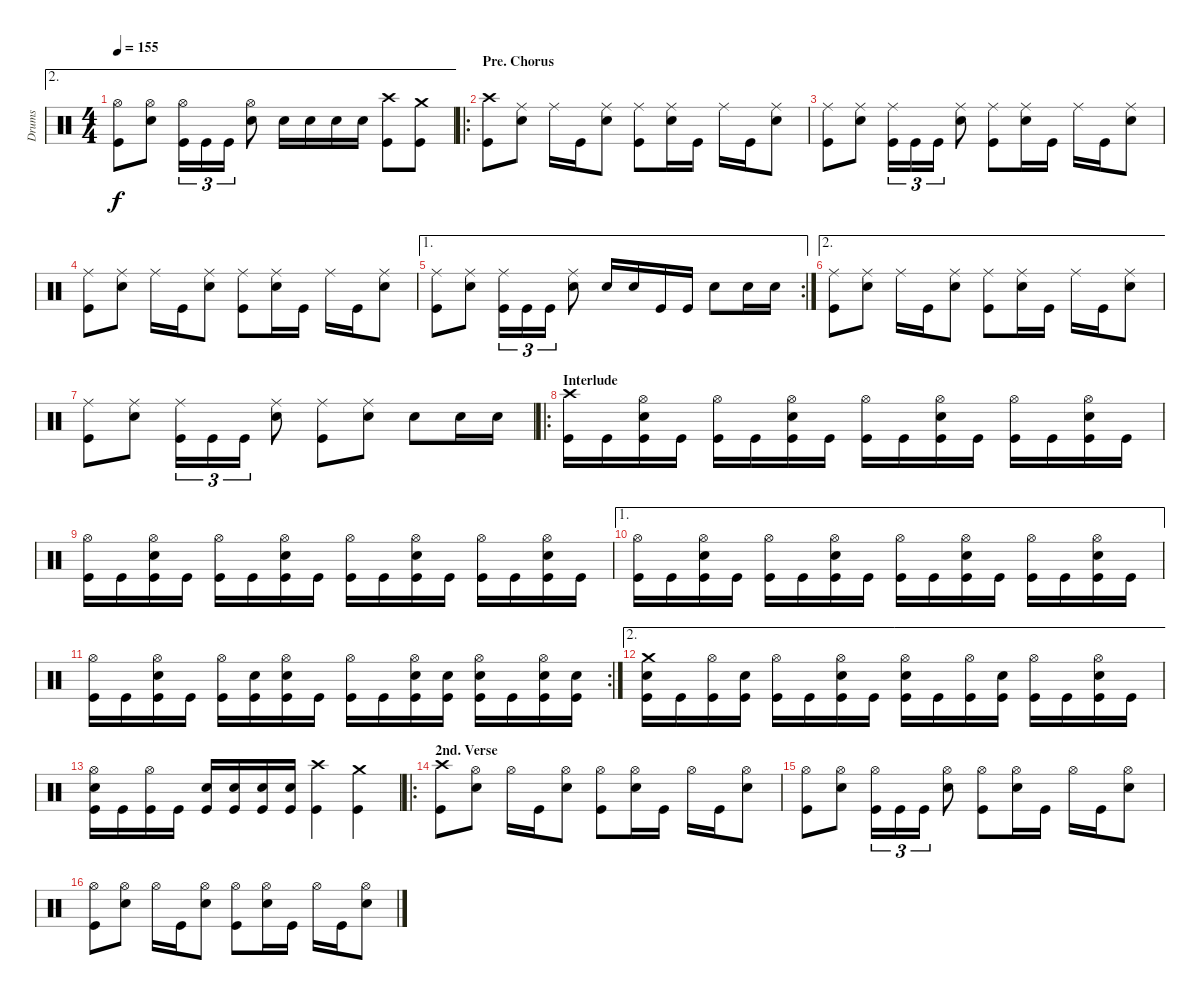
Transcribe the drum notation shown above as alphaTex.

\track ("Drums" "Drums") {instrument percussion}
\staff {score}
\articulation defaults
\ae 2
\ts (4 4)
\tempo 155
\clef neutral
\ks c
("Hi-Hat (open)" "Kick (hit)").8{dy f} ("Hi-Hat (open)" "Snare (hit) 2").8 ("Hi-Hat (open)" "Kick (hit)").16{tu (3 2)} "Kick (hit)".16{tu (3 2)} "Kick (hit)".16{tu (3 2)} ("Hi-Hat (open)" "Snare (hit) 2").8 "Snare (hit) 2".16 "Snare (hit) 2".16 "Snare (hit) 2".16 "Snare (hit) 2".16 ("Crash high (hit)" "Kick (hit)").8 ("Crash medium (hit)" "Kick (hit)").8 |
\ro
\section ("" "Pre. Chorus")
("Crash high (hit)" "Kick (hit)").8 ("Ride (middle)" "Snare (hit) 2").8 "Ride (middle)".16 "Kick (hit)".16 ("Ride (middle)" "Snare (hit) 2").8 ("Ride (middle)" "Kick (hit)").8 ("Ride (middle)" "Snare (hit) 2").16 "Kick (hit)".16 "Ride (middle)".16 "Kick (hit)".16 ("Ride (middle)" "Snare (hit) 2").8 |
("Ride (middle)" "Kick (hit)").8 ("Ride (middle)" "Snare (hit) 2").8 ("Ride (middle)" "Kick (hit)").16{tu (3 2)} "Kick (hit)".16{tu (3 2)} "Kick (hit)".16{tu (3 2)} ("Ride (middle)" "Snare (hit) 2").8 ("Ride (middle)" "Kick (hit)").8 ("Ride (middle)" "Snare (hit) 2").16 "Kick (hit)".16 "Ride (middle)".16 "Kick (hit)".16 ("Ride (middle)" "Snare (hit) 2").8 |
("Ride (middle)" "Kick (hit)").8 ("Ride (middle)" "Snare (hit) 2").8 "Ride (middle)".16 "Kick (hit)".16 ("Ride (middle)" "Snare (hit) 2").8 ("Ride (middle)" "Kick (hit)").8 ("Ride (middle)" "Snare (hit) 2").16 "Kick (hit)".16 "Ride (middle)".16 "Kick (hit)".16 ("Ride (middle)" "Snare (hit) 2").8 |
\ae 1
\rc 2
("Ride (middle)" "Kick (hit)").8 ("Ride (middle)" "Snare (hit) 2").8 ("Ride (middle)" "Kick (hit)").16{tu (3 2)} "Kick (hit)".16{tu (3 2)} "Kick (hit)".16{tu (3 2)} ("Ride (middle)" "Snare (hit) 2").8 "Snare (hit) 2".16 "Snare (hit) 2".16 "Kick (hit)".16 "Kick (hit)".16 "Snare (hit) 2".8 "Snare (hit) 2".16 "Snare (hit) 2".16 |
\ae 2
("Ride (middle)" "Kick (hit)").8 ("Ride (middle)" "Snare (hit) 2").8 "Ride (middle)".16 "Kick (hit)".16 ("Ride (middle)" "Snare (hit) 2").8 ("Ride (middle)" "Kick (hit)").8 ("Ride (middle)" "Snare (hit) 2").16 "Kick (hit)".16 "Ride (middle)".16 "Kick (hit)".16 ("Ride (middle)" "Snare (hit) 2").8 |
("Ride (middle)" "Kick (hit)").8 ("Ride (middle)" "Snare (hit) 2").8 ("Ride (middle)" "Kick (hit)").16{tu (3 2)} "Kick (hit)".16{tu (3 2)} "Kick (hit)".16{tu (3 2)} ("Ride (middle)" "Snare (hit) 2").8 ("Ride (middle)" "Kick (hit)").8 ("Ride (middle)" "Snare (hit) 2").8 "Snare (hit) 2".8 "Snare (hit) 2".16 "Snare (hit) 2".16 |
\ro
\section ("" "Interlude")
("Crash high (hit)" "Kick (hit)").16 "Kick (hit)".16 ("Hi-Hat (open)" "Snare (hit) 2" "Kick (hit)").16 "Kick (hit)".16 ("Hi-Hat (open)" "Kick (hit)").16 "Kick (hit)".16 ("Hi-Hat (open)" "Snare (hit) 2" "Kick (hit)").16 "Kick (hit)".16 ("Hi-Hat (open)" "Kick (hit)").16 "Kick (hit)".16 ("Hi-Hat (open)" "Snare (hit) 2" "Kick (hit)").16 "Kick (hit)".16 ("Hi-Hat (open)" "Kick (hit)").16 "Kick (hit)".16 ("Hi-Hat (open)" "Snare (hit) 2" "Kick (hit)").16 "Kick (hit)".16 |
("Hi-Hat (open)" "Kick (hit)").16 "Kick (hit)".16 ("Hi-Hat (open)" "Snare (hit) 2" "Kick (hit)").16 "Kick (hit)".16 ("Hi-Hat (open)" "Kick (hit)").16 "Kick (hit)".16 ("Hi-Hat (open)" "Snare (hit) 2" "Kick (hit)").16 "Kick (hit)".16 ("Hi-Hat (open)" "Kick (hit)").16 "Kick (hit)".16 ("Hi-Hat (open)" "Snare (hit) 2" "Kick (hit)").16 "Kick (hit)".16 ("Hi-Hat (open)" "Kick (hit)").16 "Kick (hit)".16 ("Hi-Hat (open)" "Snare (hit) 2" "Kick (hit)").16 "Kick (hit)".16 |
\ae 1
("Hi-Hat (open)" "Kick (hit)").16 "Kick (hit)".16 ("Hi-Hat (open)" "Snare (hit) 2" "Kick (hit)").16 "Kick (hit)".16 ("Hi-Hat (open)" "Kick (hit)").16 "Kick (hit)".16 ("Hi-Hat (open)" "Snare (hit) 2" "Kick (hit)").16 "Kick (hit)".16 ("Hi-Hat (open)" "Kick (hit)").16 "Kick (hit)".16 ("Hi-Hat (open)" "Snare (hit) 2" "Kick (hit)").16 "Kick (hit)".16 ("Hi-Hat (open)" "Kick (hit)").16 "Kick (hit)".16 ("Hi-Hat (open)" "Snare (hit) 2" "Kick (hit)").16 "Kick (hit)".16 |
\rc 2
("Hi-Hat (open)" "Kick (hit)").16 "Kick (hit)".16 ("Hi-Hat (open)" "Snare (hit) 2" "Kick (hit)").16 "Kick (hit)".16 ("Hi-Hat (open)" "Kick (hit)").16 ("Snare (hit) 2" "Kick (hit)").16 ("Hi-Hat (open)" "Snare (hit) 2" "Kick (hit)").16 "Kick (hit)".16 ("Hi-Hat (open)" "Kick (hit)").16 "Kick (hit)".16 ("Hi-Hat (open)" "Snare (hit) 2" "Kick (hit)").16 ("Snare (hit) 2" "Kick (hit)").16 ("Hi-Hat (open)" "Snare (hit) 2" "Kick (hit)").16 "Kick (hit)".16 ("Hi-Hat (open)" "Snare (hit) 2" "Kick (hit)").16 ("Snare (hit) 2" "Kick (hit)").16 |
\ae 2
("Crash medium (hit)" "Snare (hit) 2" "Kick (hit)").16 "Kick (hit)".16 ("Hi-Hat (open)" "Kick (hit)").16 ("Snare (hit) 2" "Kick (hit)").16 ("Hi-Hat (open)" "Kick (hit)").16 "Kick (hit)".16 ("Hi-Hat (open)" "Snare (hit) 2" "Kick (hit)").16 "Kick (hit)".16 ("Hi-Hat (open)" "Snare (hit) 2" "Kick (hit)").16 "Kick (hit)".16 ("Hi-Hat (open)" "Kick (hit)").16 ("Snare (hit) 2" "Kick (hit)").16 ("Hi-Hat (open)" "Kick (hit)").16 "Kick (hit)".16 ("Hi-Hat (open)" "Snare (hit) 2" "Kick (hit)").16 "Kick (hit)".16 |
("Hi-Hat (open)" "Snare (hit) 2" "Kick (hit)").16 "Kick (hit)".16 ("Hi-Hat (open)" "Kick (hit)").16 "Kick (hit)".16 ("Snare (hit) 2" "Kick (hit)").16 ("Snare (hit) 2" "Kick (hit)").16 ("Snare (hit) 2" "Kick (hit)").16 ("Snare (hit) 2" "Kick (hit)").16 ("Crash high (hit)" "Kick (hit)").4 ("Crash medium (hit)" "Kick (hit)").4 |
\ro
\section ("" "2nd. Verse")
("Crash high (hit)" "Kick (hit)").8 ("Hi-Hat (open)" "Snare (hit) 2").8 "Hi-Hat (open)".16 "Kick (hit)".16 ("Hi-Hat (open)" "Snare (hit) 2").8 ("Hi-Hat (open)" "Kick (hit)").8 ("Hi-Hat (open)" "Snare (hit) 2").16 "Kick (hit)".16 "Hi-Hat (open)".16 "Kick (hit)".16 ("Hi-Hat (open)" "Snare (hit) 2").8 |
("Hi-Hat (open)" "Kick (hit)").8 ("Hi-Hat (open)" "Snare (hit) 2").8 ("Hi-Hat (open)" "Kick (hit)").16{tu (3 2)} "Kick (hit)".16{tu (3 2)} "Kick (hit)".16{tu (3 2)} ("Hi-Hat (open)" "Snare (hit) 2").8 ("Hi-Hat (open)" "Kick (hit)").8 ("Hi-Hat (open)" "Snare (hit) 2").16 "Kick (hit)".16 "Hi-Hat (open)".16 "Kick (hit)".16 ("Hi-Hat (open)" "Snare (hit) 2").8 |
("Hi-Hat (open)" "Kick (hit)").8 ("Hi-Hat (open)" "Snare (hit) 2").8 "Hi-Hat (open)".16 "Kick (hit)".16 ("Hi-Hat (open)" "Snare (hit) 2").8 ("Hi-Hat (open)" "Kick (hit)").8 ("Hi-Hat (open)" "Snare (hit) 2").16 "Kick (hit)".16 "Hi-Hat (open)".16 "Kick (hit)".16 ("Hi-Hat (open)" "Snare (hit) 2").8
